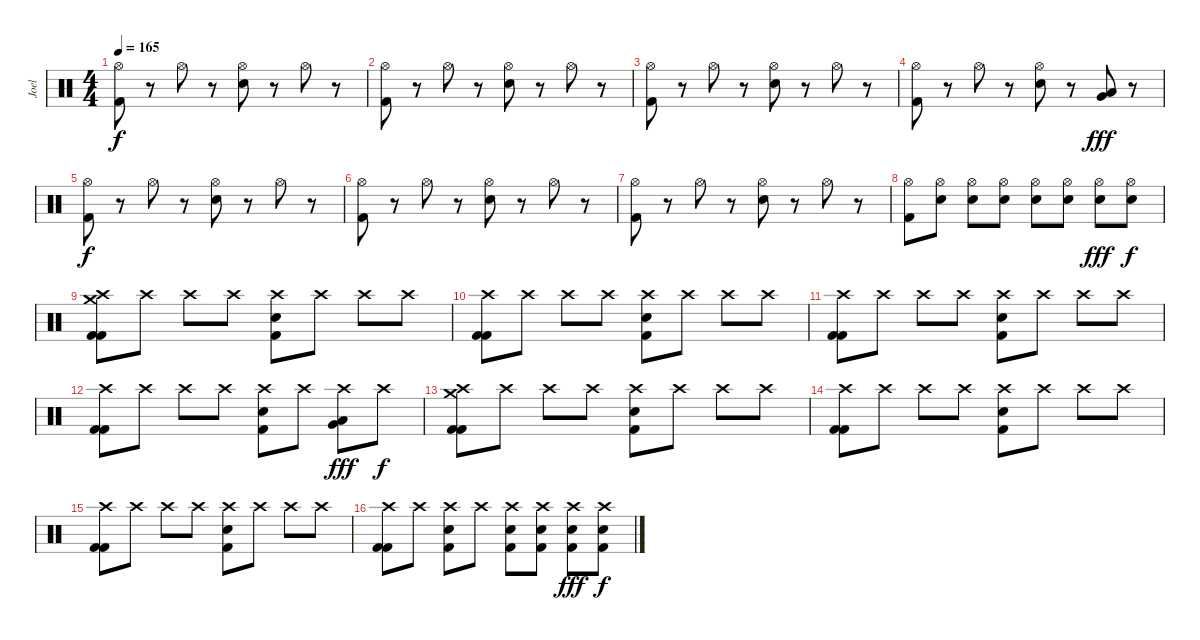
\track ("Joel" "Joel") {instrument percussion}
\staff {score}
\articulation defaults
\ts (4 4)
\tempo 165
\clef neutral
\ks c
("Hi-Hat (open)" "Kick (hit) 2").8{dy f} r.8 "Hi-Hat (open)".8 r.8 ("Hi-Hat (open)" "Electric Snare (hit)").8 r.8 "Hi-Hat (open)".8 r.8 |
("Hi-Hat (open)" "Kick (hit) 2").8 r.8 "Hi-Hat (open)".8 r.8 ("Hi-Hat (open)" "Electric Snare (hit)").8 r.8 "Hi-Hat (open)".8 r.8 |
("Hi-Hat (open)" "Kick (hit) 2").8 r.8 "Hi-Hat (open)".8 r.8 ("Hi-Hat (open)" "Electric Snare (hit)").8 r.8 "Hi-Hat (open)".8 r.8 |
("Hi-Hat (open)" "Kick (hit) 2").8 r.8 "Hi-Hat (open)".8 r.8 ("Hi-Hat (open)" "Electric Snare (hit)").8 r.8 ("Very Low Tom (hit)" "Low Floor Tom (hit)").8{dy fff} r.8 |
("Hi-Hat (open)" "Kick (hit) 2").8{dy f} r.8 "Hi-Hat (open)".8 r.8 ("Hi-Hat (open)" "Electric Snare (hit)").8 r.8 "Hi-Hat (open)".8 r.8 |
("Hi-Hat (open)" "Kick (hit) 2").8 r.8 "Hi-Hat (open)".8 r.8 ("Hi-Hat (open)" "Electric Snare (hit)").8 r.8 "Hi-Hat (open)".8 r.8 |
("Hi-Hat (open)" "Kick (hit) 2").8 r.8 "Hi-Hat (open)".8 r.8 ("Hi-Hat (open)" "Electric Snare (hit)").8 r.8 "Hi-Hat (open)".8 r.8 |
("Hi-Hat (open)" "Kick (hit) 2").8 ("Hi-Hat (open)" "Electric Snare (hit)").8 ("Hi-Hat (open)" "Electric Snare (hit)").8 ("Hi-Hat (open)" "Electric Snare (hit)").8 ("Hi-Hat (open)" "Electric Snare (hit)").8 ("Hi-Hat (open)" "Electric Snare (hit)").8 ("Hi-Hat (open)" "Electric Snare (hit)").8{dy fff} ("Hi-Hat (open)" "Electric Snare (hit)").8{dy f} |
("Crash high (hit)" "Crash medium (hit)" "Kick (hit) 2" "Kick (hit) 2").8 "Crash high (hit)".8 "Crash high (hit)".8 "Crash high (hit)".8 ("Crash high (hit)" "Kick (hit) 2" "Electric Snare (hit)").8 "Crash high (hit)".8 "Crash high (hit)".8 "Crash high (hit)".8 |
("Crash high (hit)" "Kick (hit) 2" "Kick (hit) 2").8 "Crash high (hit)".8 "Crash high (hit)".8 "Crash high (hit)".8 ("Crash high (hit)" "Kick (hit) 2" "Electric Snare (hit)").8 "Crash high (hit)".8 "Crash high (hit)".8 "Crash high (hit)".8 |
("Crash high (hit)" "Kick (hit) 2" "Kick (hit) 2").8 "Crash high (hit)".8 "Crash high (hit)".8 "Crash high (hit)".8 ("Crash high (hit)" "Kick (hit) 2" "Electric Snare (hit)").8 "Crash high (hit)".8 "Crash high (hit)".8 "Crash high (hit)".8 |
("Crash high (hit)" "Kick (hit) 2" "Kick (hit) 2").8 "Crash high (hit)".8 "Crash high (hit)".8 "Crash high (hit)".8 ("Crash high (hit)" "Kick (hit) 2" "Electric Snare (hit)").8 "Crash high (hit)".8 ("Crash high (hit)" "Very Low Tom (hit)" "Low Floor Tom (hit)").8{dy fff} "Crash high (hit)".8{dy f} |
("Crash high (hit)" "Crash medium (hit)" "Kick (hit) 2" "Kick (hit) 2").8 "Crash high (hit)".8 "Crash high (hit)".8 "Crash high (hit)".8 ("Crash high (hit)" "Kick (hit) 2" "Electric Snare (hit)").8 "Crash high (hit)".8 "Crash high (hit)".8 "Crash high (hit)".8 |
("Crash high (hit)" "Kick (hit) 2" "Kick (hit) 2").8 "Crash high (hit)".8 "Crash high (hit)".8 "Crash high (hit)".8 ("Crash high (hit)" "Kick (hit) 2" "Electric Snare (hit)").8 "Crash high (hit)".8 "Crash high (hit)".8 "Crash high (hit)".8 |
("Crash high (hit)" "Kick (hit) 2" "Kick (hit) 2").8 "Crash high (hit)".8 "Crash high (hit)".8 "Crash high (hit)".8 ("Crash high (hit)" "Kick (hit) 2" "Electric Snare (hit)").8 "Crash high (hit)".8 "Crash high (hit)".8 "Crash high (hit)".8 |
("Crash high (hit)" "Kick (hit) 2" "Kick (hit) 2").8 "Crash high (hit)".8 ("Crash high (hit)" "Kick (hit) 2" "Electric Snare (hit)").8 "Crash high (hit)".8 ("Crash high (hit)" "Kick (hit) 2" "Electric Snare (hit)").8 ("Crash high (hit)" "Kick (hit) 2" "Electric Snare (hit)").8 ("Crash high (hit)" "Kick (hit) 2" "Electric Snare (hit)").8{dy fff} ("Crash high (hit)" "Kick (hit) 2" "Electric Snare (hit)").8{dy f}
